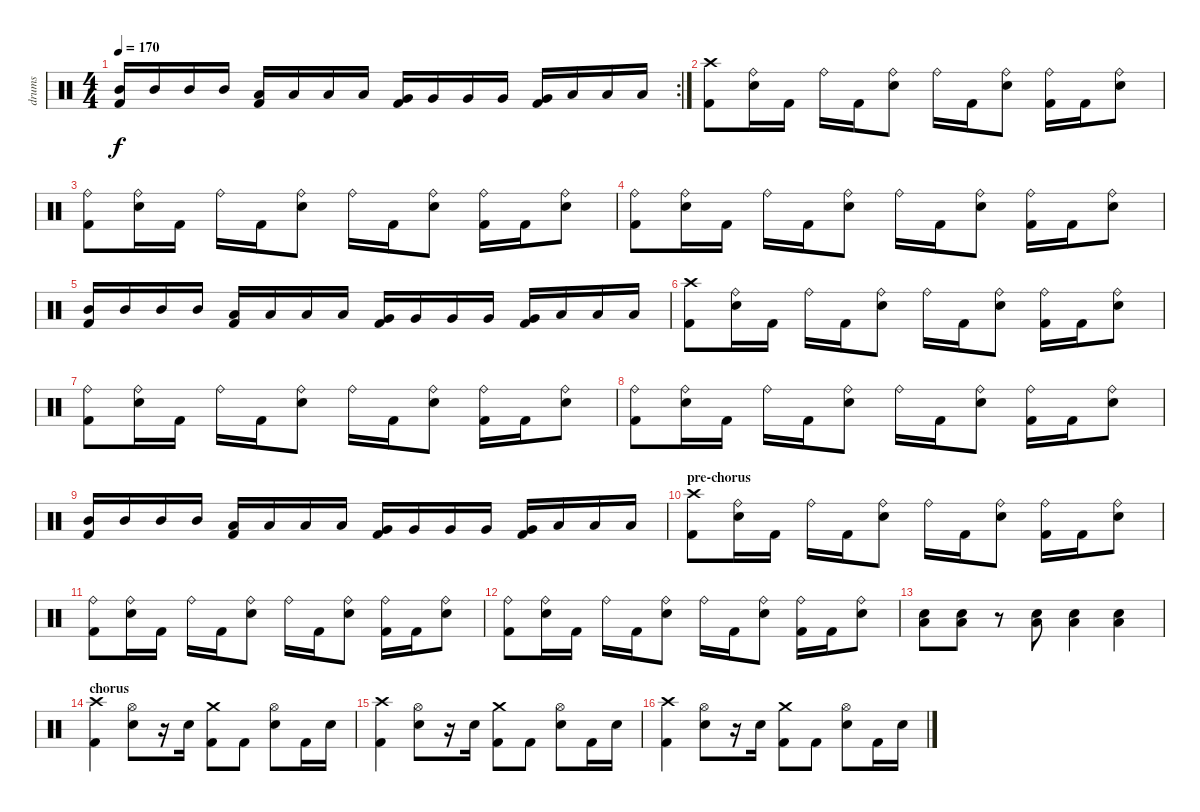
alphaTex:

\track ("drums" "drums") {instrument percussion}
\staff {score}
\articulation defaults
\rc 2
\ts (4 4)
\tempo 170
\clef neutral
\ks c
("Mid Tom (hit)" "Kick (hit) 2").16{dy f} "Mid Tom (hit)".16 "Mid Tom (hit)".16 "Mid Tom (hit)".16 ("Low Tom (hit)" "Kick (hit) 2").16 "Low Tom (hit)".16 "Low Tom (hit)".16 "Low Tom (hit)".16 ("Very Low Tom (hit)" "Kick (hit) 2").16 "Very Low Tom (hit)".16 "Very Low Tom (hit)".16 "Very Low Tom (hit)".16 ("Very Low Tom (hit)" "Kick (hit) 2").16 "Low Floor Tom (hit)".16 "Low Floor Tom (hit)".16 "Low Floor Tom (hit)".16 |
("Crash high (hit)" "Kick (hit) 2").8 ("Ride (bell)" "Electric Snare (hit)").16 "Kick (hit) 2".16 "Ride (bell)".16 "Kick (hit) 2".16 ("Ride (bell)" "Electric Snare (hit)").8 "Ride (bell)".16 "Kick (hit) 2".16 ("Ride (bell)" "Electric Snare (hit)").8 ("Ride (bell)" "Kick (hit) 2").16 "Kick (hit) 2".16 ("Ride (bell)" "Electric Snare (hit)").8 |
("Ride (bell)" "Kick (hit) 2").8 ("Ride (bell)" "Electric Snare (hit)").16 "Kick (hit) 2".16 "Ride (bell)".16 "Kick (hit) 2".16 ("Ride (bell)" "Electric Snare (hit)").8 "Ride (bell)".16 "Kick (hit) 2".16 ("Ride (bell)" "Electric Snare (hit)").8 ("Ride (bell)" "Kick (hit) 2").16 "Kick (hit) 2".16 ("Ride (bell)" "Electric Snare (hit)").8 |
("Ride (bell)" "Kick (hit) 2").8 ("Ride (bell)" "Electric Snare (hit)").16 "Kick (hit) 2".16 "Ride (bell)".16 "Kick (hit) 2".16 ("Ride (bell)" "Electric Snare (hit)").8 "Ride (bell)".16 "Kick (hit) 2".16 ("Ride (bell)" "Electric Snare (hit)").8 ("Ride (bell)" "Kick (hit) 2").16 "Kick (hit) 2".16 ("Ride (bell)" "Electric Snare (hit)").8 |
("Mid Tom (hit)" "Kick (hit) 2").16 "Mid Tom (hit)".16 "Mid Tom (hit)".16 "Mid Tom (hit)".16 ("Low Tom (hit)" "Kick (hit) 2").16 "Low Tom (hit)".16 "Low Tom (hit)".16 "Low Tom (hit)".16 ("Very Low Tom (hit)" "Kick (hit) 2").16 "Very Low Tom (hit)".16 "Very Low Tom (hit)".16 "Very Low Tom (hit)".16 ("Very Low Tom (hit)" "Kick (hit) 2").16 "Low Floor Tom (hit)".16 "Low Floor Tom (hit)".16 "Low Floor Tom (hit)".16 |
("Crash high (hit)" "Kick (hit) 2").8 ("Ride (bell)" "Electric Snare (hit)").16 "Kick (hit) 2".16 "Ride (bell)".16 "Kick (hit) 2".16 ("Ride (bell)" "Electric Snare (hit)").8 "Ride (bell)".16 "Kick (hit) 2".16 ("Ride (bell)" "Electric Snare (hit)").8 ("Ride (bell)" "Kick (hit) 2").16 "Kick (hit) 2".16 ("Ride (bell)" "Electric Snare (hit)").8 |
("Ride (bell)" "Kick (hit) 2").8 ("Ride (bell)" "Electric Snare (hit)").16 "Kick (hit) 2".16 "Ride (bell)".16 "Kick (hit) 2".16 ("Ride (bell)" "Electric Snare (hit)").8 "Ride (bell)".16 "Kick (hit) 2".16 ("Ride (bell)" "Electric Snare (hit)").8 ("Ride (bell)" "Kick (hit) 2").16 "Kick (hit) 2".16 ("Ride (bell)" "Electric Snare (hit)").8 |
("Ride (bell)" "Kick (hit) 2").8 ("Ride (bell)" "Electric Snare (hit)").16 "Kick (hit) 2".16 "Ride (bell)".16 "Kick (hit) 2".16 ("Ride (bell)" "Electric Snare (hit)").8 "Ride (bell)".16 "Kick (hit) 2".16 ("Ride (bell)" "Electric Snare (hit)").8 ("Ride (bell)" "Kick (hit) 2").16 "Kick (hit) 2".16 ("Ride (bell)" "Electric Snare (hit)").8 |
("Mid Tom (hit)" "Kick (hit) 2").16 "Mid Tom (hit)".16 "Mid Tom (hit)".16 "Mid Tom (hit)".16 ("Low Tom (hit)" "Kick (hit) 2").16 "Low Tom (hit)".16 "Low Tom (hit)".16 "Low Tom (hit)".16 ("Very Low Tom (hit)" "Kick (hit) 2").16 "Very Low Tom (hit)".16 "Very Low Tom (hit)".16 "Very Low Tom (hit)".16 ("Very Low Tom (hit)" "Kick (hit) 2").16 "Low Floor Tom (hit)".16 "Low Floor Tom (hit)".16 "Low Floor Tom (hit)".16 |
\section ("" "pre-chorus")
("Crash high (hit)" "Kick (hit) 2").8 ("Ride (bell)" "Electric Snare (hit)").16 "Kick (hit) 2".16 "Ride (bell)".16 "Kick (hit) 2".16 ("Ride (bell)" "Electric Snare (hit)").8 "Ride (bell)".16 "Kick (hit) 2".16 ("Ride (bell)" "Electric Snare (hit)").8 ("Ride (bell)" "Kick (hit) 2").16 "Kick (hit) 2".16 ("Ride (bell)" "Electric Snare (hit)").8 |
("Ride (bell)" "Kick (hit) 2").8 ("Ride (bell)" "Electric Snare (hit)").16 "Kick (hit) 2".16 "Ride (bell)".16 "Kick (hit) 2".16 ("Ride (bell)" "Electric Snare (hit)").8 "Ride (bell)".16 "Kick (hit) 2".16 ("Ride (bell)" "Electric Snare (hit)").8 ("Ride (bell)" "Kick (hit) 2").16 "Kick (hit) 2".16 ("Ride (bell)" "Electric Snare (hit)").8 |
("Ride (bell)" "Kick (hit) 2").8 ("Ride (bell)" "Electric Snare (hit)").16 "Kick (hit) 2".16 "Ride (bell)".16 "Kick (hit) 2".16 ("Ride (bell)" "Electric Snare (hit)").8 "Ride (bell)".16 "Kick (hit) 2".16 ("Ride (bell)" "Electric Snare (hit)").8 ("Ride (bell)" "Kick (hit) 2").16 "Kick (hit) 2".16 ("Ride (bell)" "Electric Snare (hit)").8 |
("Low Floor Tom (hit)" "Electric Snare (hit)").8 ("Low Floor Tom (hit)" "Electric Snare (hit)").8 r.8 ("Low Floor Tom (hit)" "Electric Snare (hit)").8 ("Low Floor Tom (hit)" "Electric Snare (hit)").4 ("Low Floor Tom (hit)" "Electric Snare (hit)").4 |
\section ("" "chorus")
("Crash high (hit)" "Kick (hit) 2").4 ("Hi-Hat (open)" "Electric Snare (hit)").8 r.16 "Electric Snare (hit)".16 ("Crash medium (hit)" "Kick (hit) 2").8 "Kick (hit) 2".8 ("Hi-Hat (open)" "Electric Snare (hit)").8 "Kick (hit) 2".16 "Electric Snare (hit)".16 |
("Crash high (hit)" "Kick (hit) 2").4 ("Hi-Hat (open)" "Electric Snare (hit)").8 r.16 "Electric Snare (hit)".16 ("Crash medium (hit)" "Kick (hit) 2").8 "Kick (hit) 2".8 ("Hi-Hat (open)" "Electric Snare (hit)").8 "Kick (hit) 2".16 "Electric Snare (hit)".16 |
("Crash high (hit)" "Kick (hit) 2").4 ("Hi-Hat (open)" "Electric Snare (hit)").8 r.16 "Electric Snare (hit)".16 ("Crash medium (hit)" "Kick (hit) 2").8 "Kick (hit) 2".8 ("Hi-Hat (open)" "Electric Snare (hit)").8 "Kick (hit) 2".16 "Electric Snare (hit)".16
